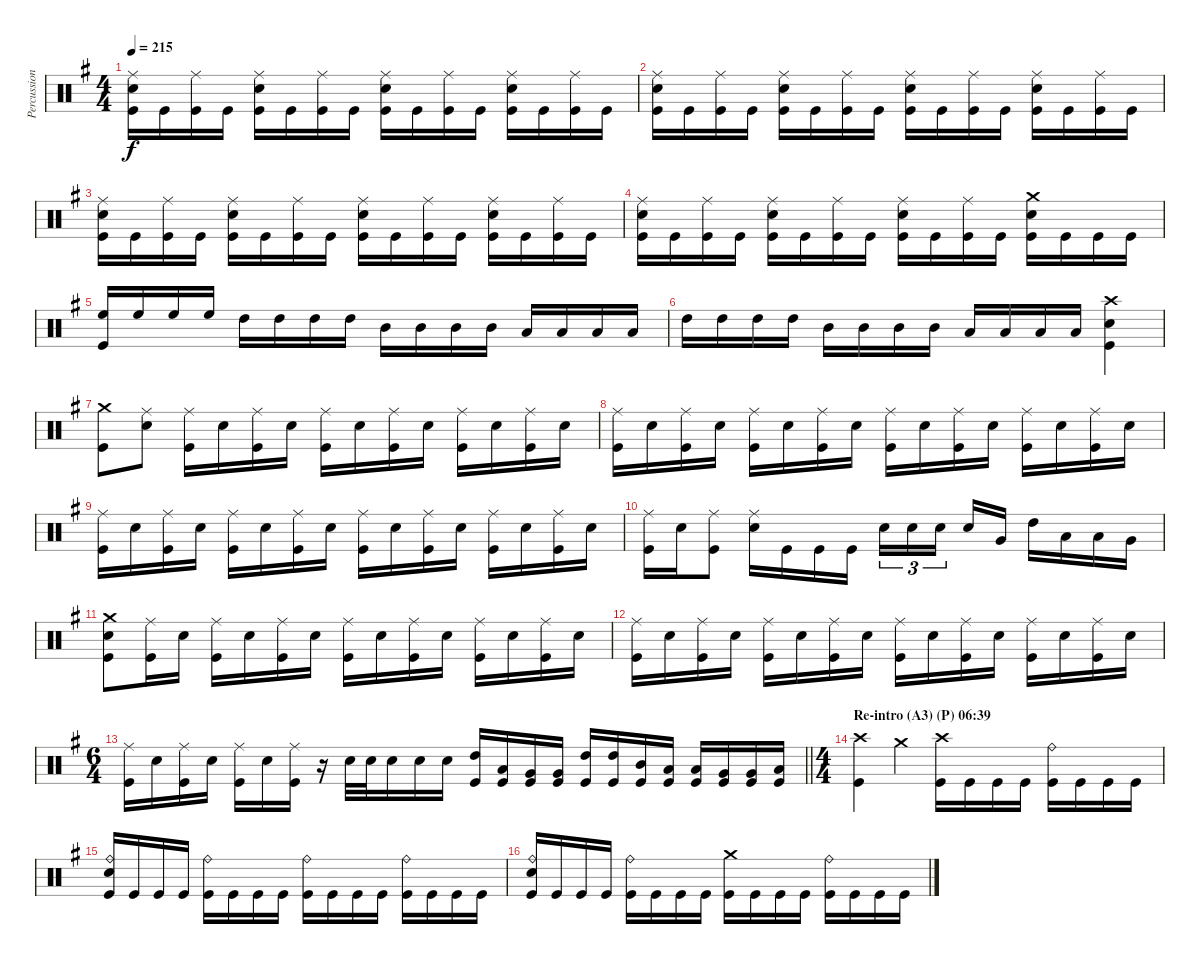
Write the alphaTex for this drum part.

\track ("Percussion" "Percussion") {instrument percussion}
\staff {score}
\articulation defaults
\ts (4 4)
\tempo 215
\clef neutral
\ks eminor
("Ride (middle)" "Electric Snare (hit)" "Kick (hit)").16{dy f} "Kick (hit)".16 ("Ride (middle)" "Kick (hit)").16 "Kick (hit)".16 ("Ride (middle)" "Electric Snare (hit)" "Kick (hit)").16 "Kick (hit)".16 ("Ride (middle)" "Kick (hit)").16 "Kick (hit)".16 ("Ride (middle)" "Electric Snare (hit)" "Kick (hit)").16 "Kick (hit)".16 ("Ride (middle)" "Kick (hit)").16 "Kick (hit)".16 ("Ride (middle)" "Electric Snare (hit)" "Kick (hit)").16 "Kick (hit)".16 ("Ride (middle)" "Kick (hit)").16 "Kick (hit)".16 |
("Ride (middle)" "Electric Snare (hit)" "Kick (hit)").16 "Kick (hit)".16 ("Ride (middle)" "Kick (hit)").16 "Kick (hit)".16 ("Ride (middle)" "Electric Snare (hit)" "Kick (hit)").16 "Kick (hit)".16 ("Ride (middle)" "Kick (hit)").16 "Kick (hit)".16 ("Ride (middle)" "Electric Snare (hit)" "Kick (hit)").16 "Kick (hit)".16 ("Ride (middle)" "Kick (hit)").16 "Kick (hit)".16 ("Ride (middle)" "Electric Snare (hit)" "Kick (hit)").16 "Kick (hit)".16 ("Ride (middle)" "Kick (hit)").16 "Kick (hit)".16 |
("Ride (middle)" "Electric Snare (hit)" "Kick (hit)").16 "Kick (hit)".16 ("Ride (middle)" "Kick (hit)").16 "Kick (hit)".16 ("Ride (middle)" "Electric Snare (hit)" "Kick (hit)").16 "Kick (hit)".16 ("Ride (middle)" "Kick (hit)").16 "Kick (hit)".16 ("Ride (middle)" "Electric Snare (hit)" "Kick (hit)").16 "Kick (hit)".16 ("Ride (middle)" "Kick (hit)").16 "Kick (hit)".16 ("Ride (middle)" "Electric Snare (hit)" "Kick (hit)").16 "Kick (hit)".16 ("Ride (middle)" "Kick (hit)").16 "Kick (hit)".16 |
("Ride (middle)" "Electric Snare (hit)" "Kick (hit)").16 "Kick (hit)".16 ("Ride (middle)" "Kick (hit)").16 "Kick (hit)".16 ("Ride (middle)" "Electric Snare (hit)" "Kick (hit)").16 "Kick (hit)".16 ("Ride (middle)" "Kick (hit)").16 "Kick (hit)".16 ("Ride (middle)" "Electric Snare (hit)" "Kick (hit)").16 "Kick (hit)".16 ("Ride (middle)" "Kick (hit)").16 "Kick (hit)".16 ("Crash medium (hit)" "Electric Snare (hit)" "Kick (hit)").16 "Kick (hit)".16 "Kick (hit)".16 "Kick (hit)".16 |
("High Floor Tom (hit)" "Kick (hit)").16 "High Floor Tom (hit)".16 "High Floor Tom (hit)".16 "High Floor Tom (hit)".16 "High Tom (hit)".16 "High Tom (hit)".16 "High Tom (hit)".16 "High Tom (hit)".16 "Mid Tom (hit)".16 "Mid Tom (hit)".16 "Mid Tom (hit)".16 "Mid Tom (hit)".16 "Low Tom (hit)".16 "Low Tom (hit)".16 "Low Tom (hit)".16 "Low Tom (hit)".16 |
"High Tom (hit)".16 "High Tom (hit)".16 "High Tom (hit)".16 "High Tom (hit)".16 "Mid Tom (hit)".16 "Mid Tom (hit)".16 "Mid Tom (hit)".16 "Mid Tom (hit)".16 "Low Tom (hit)".16 "Low Tom (hit)".16 "Low Tom (hit)".16 "Low Tom (hit)".16 ("Crash high (hit)" "Electric Snare (hit)" "Kick (hit)").4 |
("Crash medium (hit)" "Kick (hit)").8 ("Ride (middle)" "Electric Snare (hit)").8 ("Ride (middle)" "Kick (hit)").16 "Electric Snare (hit)".16 ("Ride (middle)" "Kick (hit)").16 "Electric Snare (hit)".16 ("Ride (middle)" "Kick (hit)").16 "Electric Snare (hit)".16 ("Ride (middle)" "Kick (hit)").16 "Electric Snare (hit)".16 ("Ride (middle)" "Kick (hit)").16 "Electric Snare (hit)".16 ("Ride (middle)" "Kick (hit)").16 "Electric Snare (hit)".16 |
("Ride (middle)" "Kick (hit)").16 "Electric Snare (hit)".16 ("Ride (middle)" "Kick (hit)").16 "Electric Snare (hit)".16 ("Ride (middle)" "Kick (hit)").16 "Electric Snare (hit)".16 ("Ride (middle)" "Kick (hit)").16 "Electric Snare (hit)".16 ("Ride (middle)" "Kick (hit)").16 "Electric Snare (hit)".16 ("Ride (middle)" "Kick (hit)").16 "Electric Snare (hit)".16 ("Ride (middle)" "Kick (hit)").16 "Electric Snare (hit)".16 ("Ride (middle)" "Kick (hit)").16 "Electric Snare (hit)".16 |
("Ride (middle)" "Kick (hit)").16 "Electric Snare (hit)".16 ("Ride (middle)" "Kick (hit)").16 "Electric Snare (hit)".16 ("Ride (middle)" "Kick (hit)").16 "Electric Snare (hit)".16 ("Ride (middle)" "Kick (hit)").16 "Electric Snare (hit)".16 ("Ride (middle)" "Kick (hit)").16 "Electric Snare (hit)".16 ("Ride (middle)" "Kick (hit)").16 "Electric Snare (hit)".16 ("Ride (middle)" "Kick (hit)").16 "Electric Snare (hit)".16 ("Ride (middle)" "Kick (hit)").16 "Electric Snare (hit)".16 |
("Ride (middle)" "Kick (hit)").16 "Electric Snare (hit)".16 ("Ride (middle)" "Kick (hit)").8 ("Ride (middle)" "Electric Snare (hit)").16 "Kick (hit)".16 "Kick (hit)".16 "Kick (hit)".16 "Electric Snare (hit)".16{tu (3 2)} "Electric Snare (hit)".16{tu (3 2)} "Electric Snare (hit)".16{tu (3 2) beam splitsecondary} "Electric Snare (hit)".16 "Very Low Tom (hit)".16 "High Tom (hit)".16 "Low Tom (hit)".16 "Low Tom (hit)".16 "Very Low Tom (hit)".16 |
("Crash medium (hit)" "Electric Snare (hit)" "Kick (hit)").8 ("Ride (middle)" "Kick (hit)").16 "Electric Snare (hit)".16 ("Ride (middle)" "Kick (hit)").16 "Electric Snare (hit)".16 ("Ride (middle)" "Kick (hit)").16 "Electric Snare (hit)".16 ("Ride (middle)" "Kick (hit)").16 "Electric Snare (hit)".16 ("Ride (middle)" "Kick (hit)").16 "Electric Snare (hit)".16 ("Ride (middle)" "Kick (hit)").16 "Electric Snare (hit)".16 ("Ride (middle)" "Kick (hit)").16 "Electric Snare (hit)".16 |
("Ride (middle)" "Kick (hit)").16 "Electric Snare (hit)".16 ("Ride (middle)" "Kick (hit)").16 "Electric Snare (hit)".16 ("Ride (middle)" "Kick (hit)").16 "Electric Snare (hit)".16 ("Ride (middle)" "Kick (hit)").16 "Electric Snare (hit)".16 ("Ride (middle)" "Kick (hit)").16 "Electric Snare (hit)".16 ("Ride (middle)" "Kick (hit)").16 "Electric Snare (hit)".16 ("Ride (middle)" "Kick (hit)").16 "Electric Snare (hit)".16 ("Ride (middle)" "Kick (hit)").16 "Electric Snare (hit)".16 |
\ts (6 4)
\barLineRight lightlight
("Ride (middle)" "Kick (hit)").16 "Electric Snare (hit)".16 ("Ride (middle)" "Kick (hit)").16 "Electric Snare (hit)".16 ("Ride (middle)" "Kick (hit)").16 "Electric Snare (hit)".16 ("Ride (middle)" "Kick (hit)").16 r.16 "Electric Snare (hit)".32 "Electric Snare (hit)".32 "Electric Snare (hit)".16 "Electric Snare (hit)".16 "Electric Snare (hit)".16 ("High Tom (hit)" "Kick (hit)").16 ("Low Tom (hit)" "Kick (hit)").16 ("Very Low Tom (hit)" "Kick (hit)").16 ("Very Low Tom (hit)" "Kick (hit)").16 ("High Tom (hit)" "Kick (hit)").16 ("High Tom (hit)" "Kick (hit)").16 ("Mid Tom (hit)" "Kick (hit)").16 ("Low Tom (hit)" "Kick (hit)").16 ("Low Tom (hit)" "Kick (hit)").16 ("Very Low Tom (hit)" "Kick (hit)").16 ("Very Low Tom (hit)" "Kick (hit)").16 ("Low Floor Tom (hit)" "Kick (hit)").16 |
\ts (4 4)
\section ("" "Re-intro (A3) (P) 06:39")
("Crash high (hit)" "Kick (hit)").4 "Crash medium (hit)".4 ("Crash high (hit)" "Kick (hit)").16 "Kick (hit)".16 "Kick (hit)".16 "Kick (hit)".16 ("Ride (bell)" "Kick (hit)").16 "Kick (hit)".16 "Kick (hit)".16 "Kick (hit)".16 |
("Ride (bell)" "Snare (hit) 2" "Kick (hit)").16 "Kick (hit)".16 "Kick (hit)".16 "Kick (hit)".16 ("Ride (bell)" "Kick (hit)").16 "Kick (hit)".16 "Kick (hit)".16 "Kick (hit)".16 ("Ride (bell)" "Kick (hit)").16 "Kick (hit)".16 "Kick (hit)".16 "Kick (hit)".16 ("Ride (bell)" "Kick (hit)").16 "Kick (hit)".16 "Kick (hit)".16 "Kick (hit)".16 |
("Ride (bell)" "Snare (hit) 2" "Kick (hit)").16 "Kick (hit)".16 "Kick (hit)".16 "Kick (hit)".16 ("Ride (bell)" "Kick (hit)").16 "Kick (hit)".16 "Kick (hit)".16 "Kick (hit)".16 ("Crash medium (hit)" "Kick (hit)").16 "Kick (hit)".16 "Kick (hit)".16 "Kick (hit)".16 ("Ride (bell)" "Kick (hit)").16 "Kick (hit)".16 "Kick (hit)".16 "Kick (hit)".16
